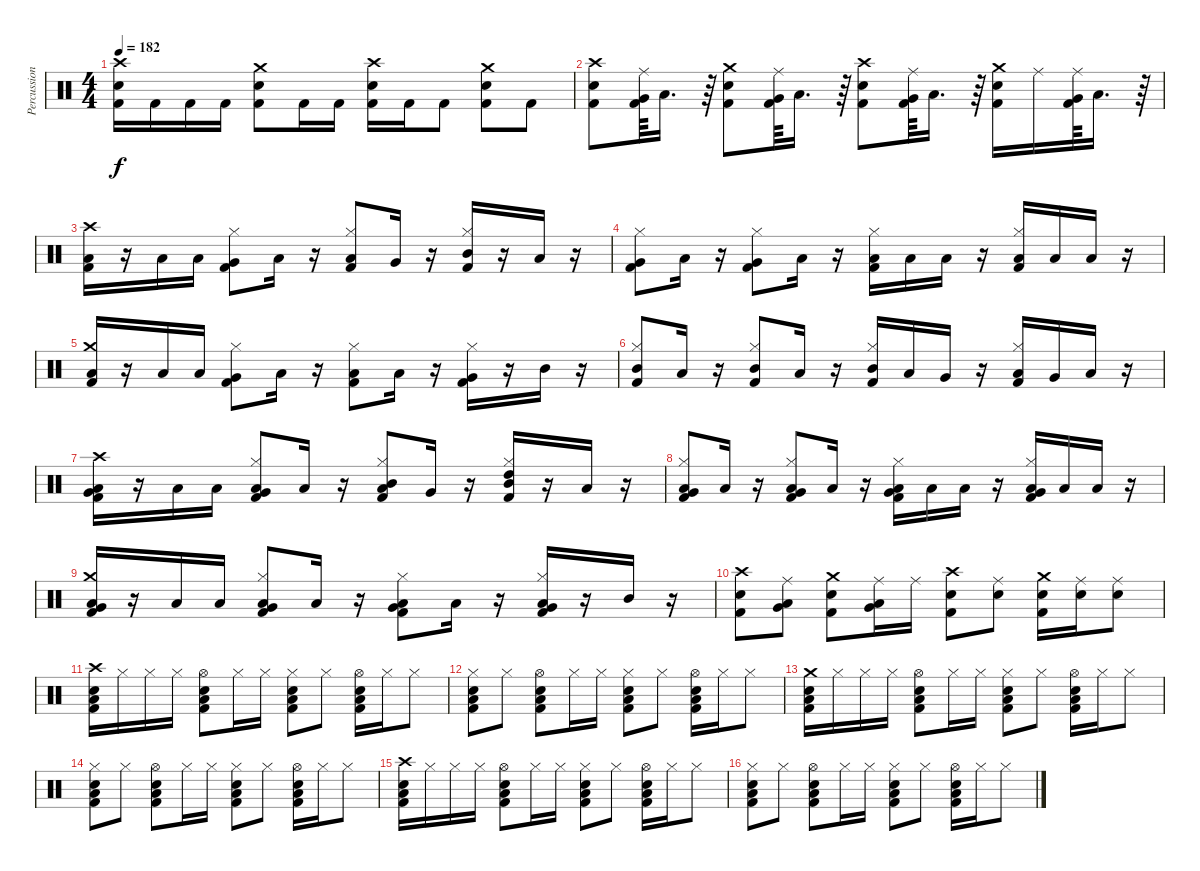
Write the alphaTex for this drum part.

\track ("Percussion" "Percussion") {instrument percussion}
\staff {score}
\articulation defaults
\ts (4 4)
\tempo 182
\clef neutral
\ks c
("Crash high (hit)" "Snare (hit) 2" "Kick (hit) 2").16{dy f} "Kick (hit) 2".16 "Kick (hit) 2".16 "Kick (hit) 2".16 ("Crash medium (hit)" "Snare (hit) 2" "Kick (hit) 2").8 "Kick (hit) 2".16 "Kick (hit) 2".16 ("Crash high (hit)" "Snare (hit) 2" "Kick (hit) 2").16 "Kick (hit) 2".16 "Kick (hit) 2".8 ("Crash medium (hit)" "Snare (hit) 2" "Kick (hit) 2").8 "Kick (hit) 2".8 |
("Crash high (hit)" "Snare (hit) 2" "Kick (hit) 2").8 ("Ride (middle)" "Very Low Tom (hit)" "Kick (hit) 2").64 "Low Floor Tom (hit)".16{d} r.64 ("Crash medium (hit)" "Snare (hit) 2" "Kick (hit) 2").8 ("Ride (middle)" "Very Low Tom (hit)" "Kick (hit) 2").64 "Low Floor Tom (hit)".16{d} r.64 ("Crash high (hit)" "Snare (hit) 2" "Kick (hit) 2").8 ("Ride (middle)" "Very Low Tom (hit)" "Kick (hit) 2").64 "Low Floor Tom (hit)".16{d} r.64 ("Crash medium (hit)" "Snare (hit) 2" "Kick (hit) 2").16 "Ride (middle)".16 ("Ride (middle)" "Very Low Tom (hit)" "Kick (hit) 2").64 "Low Floor Tom (hit)".16{d} r.64 |
("Crash high (hit)" "Low Floor Tom (hit)" "Kick (hit) 2").16 r.16 "Low Floor Tom (hit)".16 "Low Floor Tom (hit)".16 ("Hi-Hat (closed)" "Very Low Tom (hit)" "Kick (hit) 2").8 "Low Floor Tom (hit)".16 r.16 ("Hi-Hat (closed)" "Low Tom (hit)" "Kick (hit) 2").8 "Very Low Tom (hit)".16 r.16 ("Hi-Hat (closed)" "Mid Tom (hit)" "Kick (hit) 2").16 r.16 "Low Tom (hit)".16 r.16 |
("Hi-Hat (closed)" "Very Low Tom (hit)" "Kick (hit) 2").8 "Low Floor Tom (hit)".16 r.16 ("Hi-Hat (closed)" "Very Low Tom (hit)" "Kick (hit) 2").8 "Low Floor Tom (hit)".16 r.16 ("Hi-Hat (closed)" "Low Floor Tom (hit)" "Kick (hit) 2").16 "Low Floor Tom (hit)".16 "Low Floor Tom (hit)".16 r.16 ("Hi-Hat (closed)" "Low Tom (hit)" "Kick (hit) 2").16 "Low Tom (hit)".16 "Low Tom (hit)".16 r.16 |
("Crash medium (hit)" "Low Floor Tom (hit)" "Kick (hit) 2").16 r.16 "Low Floor Tom (hit)".16 "Low Floor Tom (hit)".16 ("Hi-Hat (closed)" "Very Low Tom (hit)" "Kick (hit) 2").8 "Low Floor Tom (hit)".16 r.16 ("Hi-Hat (closed)" "Low Floor Tom (hit)" "Kick (hit) 2").8 "Low Tom (hit)".16 r.16 ("Hi-Hat (closed)" "Very Low Tom (hit)" "Kick (hit) 2").16 r.16 "Mid Tom (hit)".16 r.16 |
("Hi-Hat (closed)" "Mid Tom (hit)" "Kick (hit) 2").8 "Low Tom (hit)".16 r.16 ("Hi-Hat (closed)" "Mid Tom (hit)" "Kick (hit) 2").8 "Low Tom (hit)".16 r.16 ("Hi-Hat (closed)" "Mid Tom (hit)" "Kick (hit) 2").16 "Low Tom (hit)".16 "Very Low Tom (hit)".16 r.16 ("Hi-Hat (closed)" "Low Tom (hit)" "Kick (hit) 2").16 "Very Low Tom (hit)".16 "Low Floor Tom (hit)".16 r.16 |
("Crash high (hit)" "Very Low Tom (hit)" "Low Floor Tom (hit)" "Kick (hit) 2").16 r.16 "Low Floor Tom (hit)".16 "Low Floor Tom (hit)".16 ("Hi-Hat (closed)" "Low Tom (hit)" "Very Low Tom (hit)" "Kick (hit) 2").8 "Low Floor Tom (hit)".16 r.16 ("Hi-Hat (closed)" "Mid Tom (hit)" "Low Tom (hit)" "Kick (hit) 2").8 "Very Low Tom (hit)".16 r.16 ("Hi-Hat (closed)" "High Tom (hit)" "Mid Tom (hit)" "Kick (hit) 2").16 r.16 "Low Tom (hit)".16 r.16 |
("Hi-Hat (closed)" "Low Tom (hit)" "Very Low Tom (hit)" "Kick (hit) 2").8 "Low Floor Tom (hit)".16 r.16 ("Hi-Hat (closed)" "Low Tom (hit)" "Very Low Tom (hit)" "Kick (hit) 2").8 "Low Floor Tom (hit)".16 r.16 ("Hi-Hat (closed)" "Very Low Tom (hit)" "Low Floor Tom (hit)" "Kick (hit) 2").16 "Low Floor Tom (hit)".16 "Low Floor Tom (hit)".16 r.16 ("Hi-Hat (closed)" "Very Low Tom (hit)" "Low Tom (hit)" "Kick (hit) 2").16 "Low Tom (hit)".16 "Low Tom (hit)".16 r.16 |
("Crash medium (hit)" "Very Low Tom (hit)" "Low Floor Tom (hit)" "Kick (hit) 2").16 r.16 "Low Floor Tom (hit)".16 "Low Floor Tom (hit)".16 ("Hi-Hat (closed)" "Low Tom (hit)" "Very Low Tom (hit)" "Kick (hit) 2").8 "Low Floor Tom (hit)".16 r.16 ("Hi-Hat (closed)" "Very Low Tom (hit)" "Low Floor Tom (hit)" "Kick (hit) 2").8 "Low Tom (hit)".16 r.16 ("Hi-Hat (closed)" "Low Tom (hit)" "Very Low Tom (hit)" "Kick (hit) 2").16 r.16 "Mid Tom (hit)".16 r.16 |
("Crash high (hit)" "Snare (hit) 2" "Kick (hit) 2").8 ("Ride (middle)" "Very Low Tom (hit)" "Low Floor Tom (hit)").8 ("Crash medium (hit)" "Snare (hit) 2" "Kick (hit) 2").8 ("Ride (middle)" "Very Low Tom (hit)" "Low Floor Tom (hit)").16 "Ride (middle)".16 ("Crash high (hit)" "Snare (hit) 2" "Kick (hit) 2").8 ("Ride (middle)" "Snare (hit) 2").8 ("Crash medium (hit)" "Snare (hit) 2" "Kick (hit) 2").16 ("Ride (middle)" "Snare (hit) 2").16 ("Ride (middle)" "Snare (hit) 2").8 |
("Crash high (hit)" "Snare (hit) 2" "Low Floor Tom (hit)" "Kick (hit) 2").16 "Hi-Hat (closed)".16 "Hi-Hat (closed)".16 "Hi-Hat (closed)".16 ("Hi-Hat (open)" "Snare (hit) 2" "Low Floor Tom (hit)" "Kick (hit) 2").8 "Hi-Hat (closed)".16 "Hi-Hat (closed)".16 ("Hi-Hat (closed)" "Snare (hit) 2" "Low Floor Tom (hit)" "Kick (hit) 2").8 "Hi-Hat (closed)".8 ("Hi-Hat (open)" "Snare (hit) 2" "Low Floor Tom (hit)" "Kick (hit) 2").16 "Hi-Hat (closed)".16 "Hi-Hat (closed)".8 |
("Hi-Hat (closed)" "Snare (hit) 2" "Low Floor Tom (hit)" "Kick (hit) 2").8 "Hi-Hat (closed)".8 ("Hi-Hat (open)" "Snare (hit) 2" "Low Floor Tom (hit)" "Kick (hit) 2").8 "Hi-Hat (closed)".16 "Hi-Hat (closed)".16 ("Hi-Hat (closed)" "Snare (hit) 2" "Low Floor Tom (hit)" "Kick (hit) 2").8 "Hi-Hat (closed)".8 ("Hi-Hat (open)" "Snare (hit) 2" "Low Floor Tom (hit)" "Kick (hit) 2").16 "Hi-Hat (closed)".16 "Hi-Hat (closed)".8 |
("Crash medium (hit)" "Snare (hit) 2" "Low Floor Tom (hit)" "Kick (hit) 2").16 "Hi-Hat (closed)".16 "Hi-Hat (closed)".16 "Hi-Hat (closed)".16 ("Hi-Hat (open)" "Snare (hit) 2" "Low Floor Tom (hit)" "Kick (hit) 2").8 "Hi-Hat (closed)".16 "Hi-Hat (closed)".16 ("Hi-Hat (closed)" "Snare (hit) 2" "Low Floor Tom (hit)" "Kick (hit) 2").8 "Hi-Hat (closed)".8 ("Hi-Hat (open)" "Snare (hit) 2" "Low Floor Tom (hit)" "Kick (hit) 2").16 "Hi-Hat (closed)".16 "Hi-Hat (closed)".8 |
("Hi-Hat (closed)" "Snare (hit) 2" "Low Floor Tom (hit)" "Kick (hit) 2").8 "Hi-Hat (closed)".8 ("Hi-Hat (open)" "Snare (hit) 2" "Low Floor Tom (hit)" "Kick (hit) 2").8 "Hi-Hat (closed)".16 "Hi-Hat (closed)".16 ("Hi-Hat (closed)" "Snare (hit) 2" "Low Floor Tom (hit)" "Kick (hit) 2").8 "Hi-Hat (closed)".8 ("Hi-Hat (open)" "Snare (hit) 2" "Low Floor Tom (hit)" "Kick (hit) 2").16 "Hi-Hat (closed)".16 "Hi-Hat (closed)".8 |
("Crash high (hit)" "Snare (hit) 2" "Low Floor Tom (hit)" "Kick (hit) 2").16 "Hi-Hat (closed)".16 "Hi-Hat (closed)".16 "Hi-Hat (closed)".16 ("Hi-Hat (open)" "Snare (hit) 2" "Low Floor Tom (hit)" "Kick (hit) 2").8 "Hi-Hat (closed)".16 "Hi-Hat (closed)".16 ("Hi-Hat (closed)" "Snare (hit) 2" "Low Floor Tom (hit)" "Kick (hit) 2").8 "Hi-Hat (closed)".8 ("Hi-Hat (open)" "Snare (hit) 2" "Low Floor Tom (hit)" "Kick (hit) 2").16 "Hi-Hat (closed)".16 "Hi-Hat (closed)".8 |
("Hi-Hat (closed)" "Snare (hit) 2" "Low Floor Tom (hit)" "Kick (hit) 2").8 "Hi-Hat (closed)".8 ("Hi-Hat (open)" "Snare (hit) 2" "Low Floor Tom (hit)" "Kick (hit) 2").8 "Hi-Hat (closed)".16 "Hi-Hat (closed)".16 ("Hi-Hat (closed)" "Snare (hit) 2" "Low Floor Tom (hit)" "Kick (hit) 2").8 "Hi-Hat (closed)".8 ("Hi-Hat (open)" "Snare (hit) 2" "Low Floor Tom (hit)" "Kick (hit) 2").16 "Hi-Hat (closed)".16 "Hi-Hat (closed)".8
